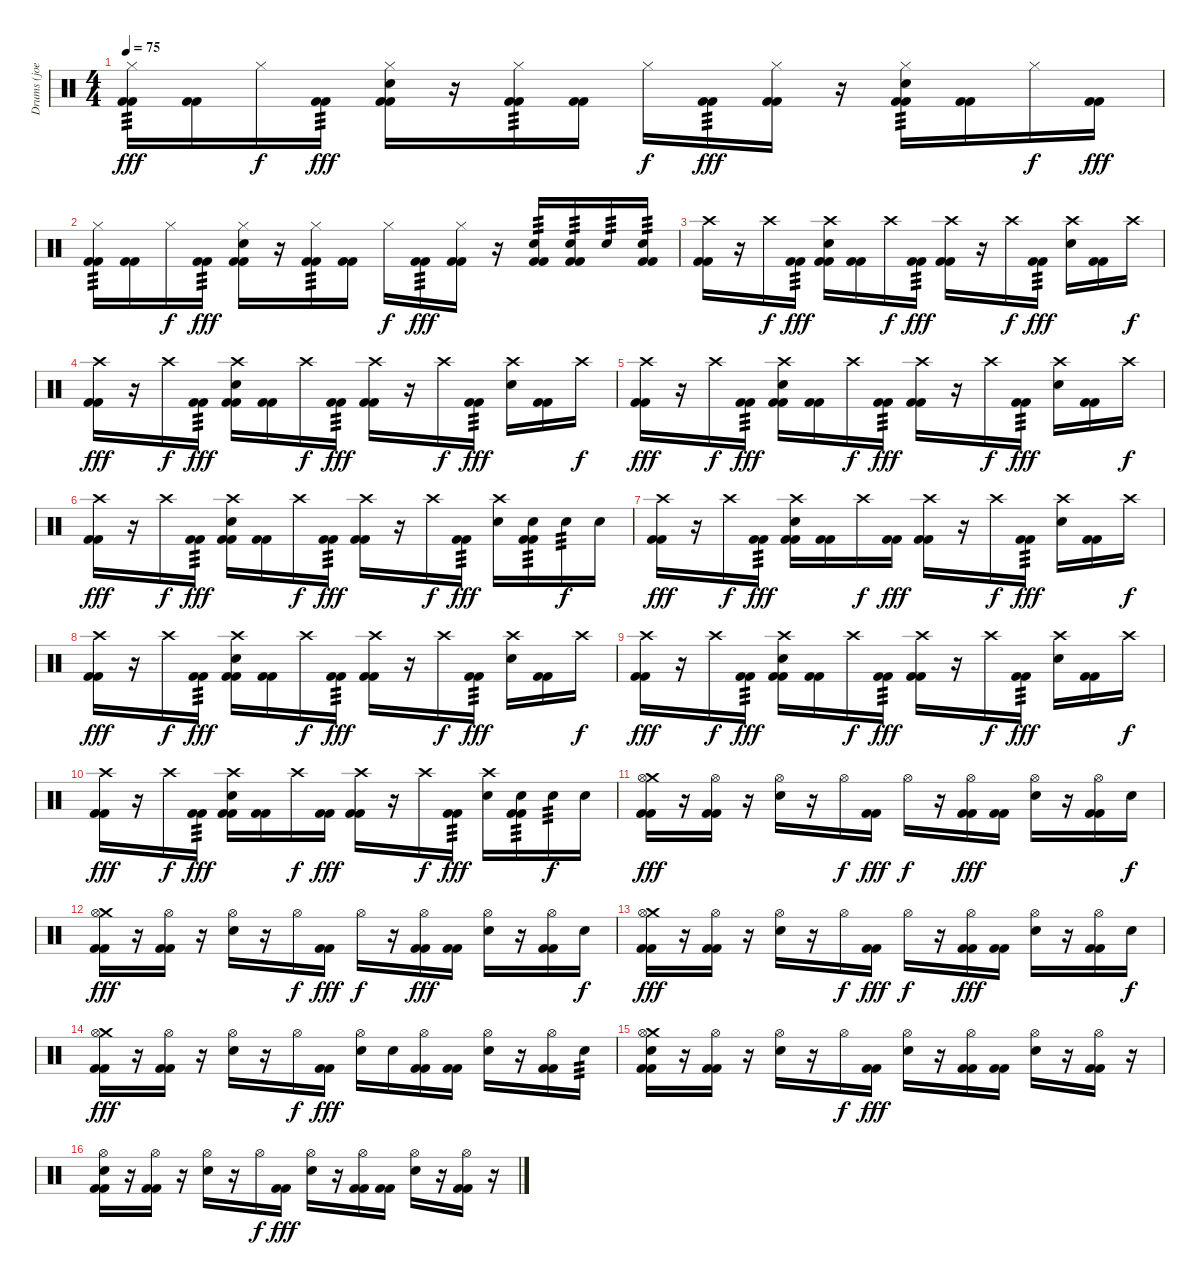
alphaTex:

\track ("Drums (joey)" "Drums (joe") {instrument percussion}
\staff {score}
\articulation defaults
\ts (4 4)
\tempo 75
\clef neutral
\ks c
("Hi-Hat (closed)" "Kick (hit) 2" "Kick (hit) 2").16{tp 3 dy fff} ("Kick (hit) 2" "Kick (hit) 2").16 "Hi-Hat (closed)".16{dy f} ("Kick (hit) 2" "Kick (hit) 2").16{tp 3 dy fff} ("Hi-Hat (closed)" "Electric Snare (hit)" "Kick (hit) 2" "Kick (hit) 2").16 r.16 ("Hi-Hat (closed)" "Kick (hit) 2" "Kick (hit) 2").16{tp 3} ("Kick (hit) 2" "Kick (hit) 2").16 "Hi-Hat (closed)".16{dy f} ("Kick (hit) 2" "Kick (hit) 2").16{tp 3 dy fff} ("Hi-Hat (closed)" "Kick (hit) 2" "Kick (hit) 2").16 r.16 ("Hi-Hat (closed)" "Electric Snare (hit)" "Kick (hit) 2" "Kick (hit) 2").16{tp 3} ("Kick (hit) 2" "Kick (hit) 2").16 "Hi-Hat (closed)".16{dy f} ("Kick (hit) 2" "Kick (hit) 2").16{dy fff} |
("Hi-Hat (closed)" "Kick (hit) 2" "Kick (hit) 2").16{tp 3} ("Kick (hit) 2" "Kick (hit) 2").16 "Hi-Hat (closed)".16{dy f} ("Kick (hit) 2" "Kick (hit) 2").16{tp 3 dy fff} ("Hi-Hat (closed)" "Electric Snare (hit)" "Kick (hit) 2" "Kick (hit) 2").16 r.16 ("Hi-Hat (closed)" "Kick (hit) 2" "Kick (hit) 2").16{tp 3} ("Kick (hit) 2" "Kick (hit) 2").16 "Hi-Hat (closed)".16{dy f} ("Kick (hit) 2" "Kick (hit) 2").16{tp 3 dy fff} ("Hi-Hat (closed)" "Kick (hit) 2" "Kick (hit) 2").16 r.16 ("Electric Snare (hit)" "Kick (hit) 2" "Kick (hit) 2").16{tp 3} ("Electric Snare (hit)" "Kick (hit) 2" "Kick (hit) 2").16{tp 3} "Electric Snare (hit)".16{tp 3} ("Electric Snare (hit)" "Kick (hit) 2" "Kick (hit) 2").16{tp 3} |
("Crash high (hit)" "Kick (hit) 2" "Kick (hit) 2").16 r.16 "Crash high (hit)".16{dy f} ("Kick (hit) 2" "Kick (hit) 2").16{tp 3 dy fff} ("Crash high (hit)" "Electric Snare (hit)" "Kick (hit) 2" "Kick (hit) 2").16 ("Kick (hit) 2" "Kick (hit) 2").16 "Crash high (hit)".16{dy f} ("Kick (hit) 2" "Kick (hit) 2").16{tp 3 dy fff} ("Crash high (hit)" "Kick (hit) 2" "Kick (hit) 2").16 r.16 "Crash high (hit)".16{dy f} ("Kick (hit) 2" "Kick (hit) 2").16{tp 3 dy fff} ("Crash high (hit)" "Electric Snare (hit)").16 ("Kick (hit) 2" "Kick (hit) 2").16 "Crash high (hit)".16{dy f} |
("Crash high (hit)" "Kick (hit) 2" "Kick (hit) 2").16{dy fff} r.16 "Crash high (hit)".16{dy f} ("Kick (hit) 2" "Kick (hit) 2").16{tp 3 dy fff} ("Crash high (hit)" "Electric Snare (hit)" "Kick (hit) 2" "Kick (hit) 2").16 ("Kick (hit) 2" "Kick (hit) 2").16 "Crash high (hit)".16{dy f} ("Kick (hit) 2" "Kick (hit) 2").16{tp 3 dy fff} ("Crash high (hit)" "Kick (hit) 2" "Kick (hit) 2").16 r.16 "Crash high (hit)".16{dy f} ("Kick (hit) 2" "Kick (hit) 2").16{tp 3 dy fff} ("Crash high (hit)" "Electric Snare (hit)").16 ("Kick (hit) 2" "Kick (hit) 2").16 "Crash high (hit)".16{dy f} |
("Crash high (hit)" "Kick (hit) 2" "Kick (hit) 2").16{dy fff} r.16 "Crash high (hit)".16{dy f} ("Kick (hit) 2" "Kick (hit) 2").16{tp 3 dy fff} ("Crash high (hit)" "Electric Snare (hit)" "Kick (hit) 2" "Kick (hit) 2").16 ("Kick (hit) 2" "Kick (hit) 2").16 "Crash high (hit)".16{dy f} ("Kick (hit) 2" "Kick (hit) 2").16{tp 3 dy fff} ("Crash high (hit)" "Kick (hit) 2" "Kick (hit) 2").16 r.16 "Crash high (hit)".16{dy f} ("Kick (hit) 2" "Kick (hit) 2").16{tp 3 dy fff} ("Crash high (hit)" "Electric Snare (hit)").16 ("Kick (hit) 2" "Kick (hit) 2").16 "Crash high (hit)".16{dy f} |
("Crash high (hit)" "Kick (hit) 2" "Kick (hit) 2").16{dy fff} r.16 "Crash high (hit)".16{dy f} ("Kick (hit) 2" "Kick (hit) 2").16{tp 3 dy fff} ("Crash high (hit)" "Electric Snare (hit)" "Kick (hit) 2" "Kick (hit) 2").16 ("Kick (hit) 2" "Kick (hit) 2").16 "Crash high (hit)".16{dy f} ("Kick (hit) 2" "Kick (hit) 2").16{tp 3 dy fff} ("Crash high (hit)" "Kick (hit) 2" "Kick (hit) 2").16 r.16 "Crash high (hit)".16{dy f} ("Kick (hit) 2" "Kick (hit) 2").16{tp 3 dy fff} ("Crash high (hit)" "Electric Snare (hit)").16 ("Electric Snare (hit)" "Kick (hit) 2" "Kick (hit) 2").16{tp 3} "Electric Snare (hit)".16{tp 3 dy f} "Electric Snare (hit)".16 |
("Crash high (hit)" "Kick (hit) 2" "Kick (hit) 2").16{dy fff} r.16 "Crash high (hit)".16{dy f} ("Kick (hit) 2" "Kick (hit) 2").16{tp 3 dy fff} ("Crash high (hit)" "Electric Snare (hit)" "Kick (hit) 2" "Kick (hit) 2").16 ("Kick (hit) 2" "Kick (hit) 2").16 "Crash high (hit)".16{dy f} ("Kick (hit) 2" "Kick (hit) 2").16{dy fff} ("Crash high (hit)" "Kick (hit) 2" "Kick (hit) 2").16 r.16 "Crash high (hit)".16{dy f} ("Kick (hit) 2" "Kick (hit) 2").16{tp 3 dy fff} ("Crash high (hit)" "Electric Snare (hit)").16 ("Kick (hit) 2" "Kick (hit) 2").16 "Crash high (hit)".16{dy f} |
("Crash high (hit)" "Kick (hit) 2" "Kick (hit) 2").16{dy fff} r.16 "Crash high (hit)".16{dy f} ("Kick (hit) 2" "Kick (hit) 2").16{tp 3 dy fff} ("Crash high (hit)" "Electric Snare (hit)" "Kick (hit) 2" "Kick (hit) 2").16 ("Kick (hit) 2" "Kick (hit) 2").16 "Crash high (hit)".16{dy f} ("Kick (hit) 2" "Kick (hit) 2").16{tp 3 dy fff} ("Crash high (hit)" "Kick (hit) 2" "Kick (hit) 2").16 r.16 "Crash high (hit)".16{dy f} ("Kick (hit) 2" "Kick (hit) 2").16{tp 3 dy fff} ("Crash high (hit)" "Electric Snare (hit)").16 ("Kick (hit) 2" "Kick (hit) 2").16 "Crash high (hit)".16{dy f} |
("Crash high (hit)" "Kick (hit) 2" "Kick (hit) 2").16{dy fff} r.16 "Crash high (hit)".16{dy f} ("Kick (hit) 2" "Kick (hit) 2").16{tp 3 dy fff} ("Crash high (hit)" "Electric Snare (hit)" "Kick (hit) 2" "Kick (hit) 2").16 ("Kick (hit) 2" "Kick (hit) 2").16 "Crash high (hit)".16{dy f} ("Kick (hit) 2" "Kick (hit) 2").16{tp 3 dy fff} ("Crash high (hit)" "Kick (hit) 2" "Kick (hit) 2").16 r.16 "Crash high (hit)".16{dy f} ("Kick (hit) 2" "Kick (hit) 2").16{tp 3 dy fff} ("Crash high (hit)" "Electric Snare (hit)").16 ("Kick (hit) 2" "Kick (hit) 2").16 "Crash high (hit)".16{dy f} |
("Crash high (hit)" "Kick (hit) 2" "Kick (hit) 2").16{dy fff} r.16 "Crash high (hit)".16{dy f} ("Kick (hit) 2" "Kick (hit) 2").16{tp 3 dy fff} ("Crash high (hit)" "Electric Snare (hit)" "Kick (hit) 2" "Kick (hit) 2").16 ("Kick (hit) 2" "Kick (hit) 2").16 "Crash high (hit)".16{dy f} ("Kick (hit) 2" "Kick (hit) 2").16{dy fff} ("Crash high (hit)" "Kick (hit) 2" "Kick (hit) 2").16 r.16 "Crash high (hit)".16{dy f} ("Kick (hit) 2" "Kick (hit) 2").16{tp 3 dy fff} ("Crash high (hit)" "Electric Snare (hit)").16 ("Electric Snare (hit)" "Kick (hit) 2" "Kick (hit) 2").16{tp 3} "Electric Snare (hit)".16{tp 3 dy f} "Electric Snare (hit)".16 |
("Crash medium (hit)" "Hi-Hat (open)" "Kick (hit) 2" "Kick (hit) 2").16{dy fff} r.16 ("Hi-Hat (open)" "Kick (hit) 2" "Kick (hit) 2").16 r.16 ("Hi-Hat (open)" "Electric Snare (hit)").16 r.16 "Hi-Hat (open)".16{dy f} ("Kick (hit) 2" "Kick (hit) 2").16{dy fff} "Hi-Hat (open)".16{dy f} r.16 ("Hi-Hat (open)" "Kick (hit) 2" "Kick (hit) 2").16{dy fff} ("Kick (hit) 2" "Kick (hit) 2").16 ("Hi-Hat (open)" "Electric Snare (hit)").16 r.16 ("Hi-Hat (open)" "Kick (hit) 2" "Kick (hit) 2").16 "Electric Snare (hit)".16{dy f} |
("Crash medium (hit)" "Hi-Hat (open)" "Kick (hit) 2" "Kick (hit) 2").16{dy fff} r.16 ("Hi-Hat (open)" "Kick (hit) 2" "Kick (hit) 2").16 r.16 ("Hi-Hat (open)" "Electric Snare (hit)").16 r.16 "Hi-Hat (open)".16{dy f} ("Kick (hit) 2" "Kick (hit) 2").16{dy fff} "Hi-Hat (open)".16{dy f} r.16 ("Hi-Hat (open)" "Kick (hit) 2" "Kick (hit) 2").16{dy fff} ("Kick (hit) 2" "Kick (hit) 2").16 ("Hi-Hat (open)" "Electric Snare (hit)").16 r.16 ("Hi-Hat (open)" "Kick (hit) 2" "Kick (hit) 2").16 "Electric Snare (hit)".16{dy f} |
("Crash medium (hit)" "Hi-Hat (open)" "Kick (hit) 2" "Kick (hit) 2").16{dy fff} r.16 ("Hi-Hat (open)" "Kick (hit) 2" "Kick (hit) 2").16 r.16 ("Hi-Hat (open)" "Electric Snare (hit)").16 r.16 "Hi-Hat (open)".16{dy f} ("Kick (hit) 2" "Kick (hit) 2").16{dy fff} "Hi-Hat (open)".16{dy f} r.16 ("Hi-Hat (open)" "Kick (hit) 2" "Kick (hit) 2").16{dy fff} ("Kick (hit) 2" "Kick (hit) 2").16 ("Hi-Hat (open)" "Electric Snare (hit)").16 r.16 ("Hi-Hat (open)" "Kick (hit) 2" "Kick (hit) 2").16 "Electric Snare (hit)".16{dy f} |
("Crash medium (hit)" "Hi-Hat (open)" "Kick (hit) 2" "Kick (hit) 2").16{dy fff} r.16 ("Hi-Hat (open)" "Kick (hit) 2" "Kick (hit) 2").16 r.16 ("Hi-Hat (open)" "Electric Snare (hit)").16 r.16 "Hi-Hat (open)".16{dy f} ("Kick (hit) 2" "Kick (hit) 2").16{dy fff} ("Hi-Hat (open)" "Electric Snare (hit)").16 "Electric Snare (hit)".16 ("Hi-Hat (open)" "Kick (hit) 2" "Kick (hit) 2").16 ("Kick (hit) 2" "Kick (hit) 2").16 ("Hi-Hat (open)" "Electric Snare (hit)").16 r.16 ("Hi-Hat (open)" "Kick (hit) 2" "Kick (hit) 2").16 "Electric Snare (hit)".16{tp 3} |
("Crash medium (hit)" "Hi-Hat (open)" "Electric Snare (hit)" "Kick (hit) 2" "Kick (hit) 2").16 r.16 ("Hi-Hat (open)" "Kick (hit) 2" "Kick (hit) 2").16 r.16 ("Hi-Hat (open)" "Electric Snare (hit)").16 r.16 "Hi-Hat (open)".16{dy f} ("Kick (hit) 2" "Kick (hit) 2").16{dy fff} ("Hi-Hat (open)" "Electric Snare (hit)").16 r.16 ("Hi-Hat (open)" "Kick (hit) 2" "Kick (hit) 2").16 ("Kick (hit) 2" "Kick (hit) 2").16 ("Hi-Hat (open)" "Electric Snare (hit)").16 r.16 ("Hi-Hat (open)" "Kick (hit) 2" "Kick (hit) 2").16 r.16 |
("Hi-Hat (open)" "Electric Snare (hit)" "Kick (hit) 2" "Kick (hit) 2").16 r.16 ("Hi-Hat (open)" "Kick (hit) 2" "Kick (hit) 2").16 r.16 ("Hi-Hat (open)" "Electric Snare (hit)").16 r.16 "Hi-Hat (open)".16{dy f} ("Kick (hit) 2" "Kick (hit) 2").16{dy fff} ("Hi-Hat (open)" "Electric Snare (hit)").16 r.16 ("Hi-Hat (open)" "Kick (hit) 2" "Kick (hit) 2").16 ("Kick (hit) 2" "Kick (hit) 2").16 ("Hi-Hat (open)" "Electric Snare (hit)").16 r.16 ("Hi-Hat (open)" "Kick (hit) 2" "Kick (hit) 2").16 r.16
